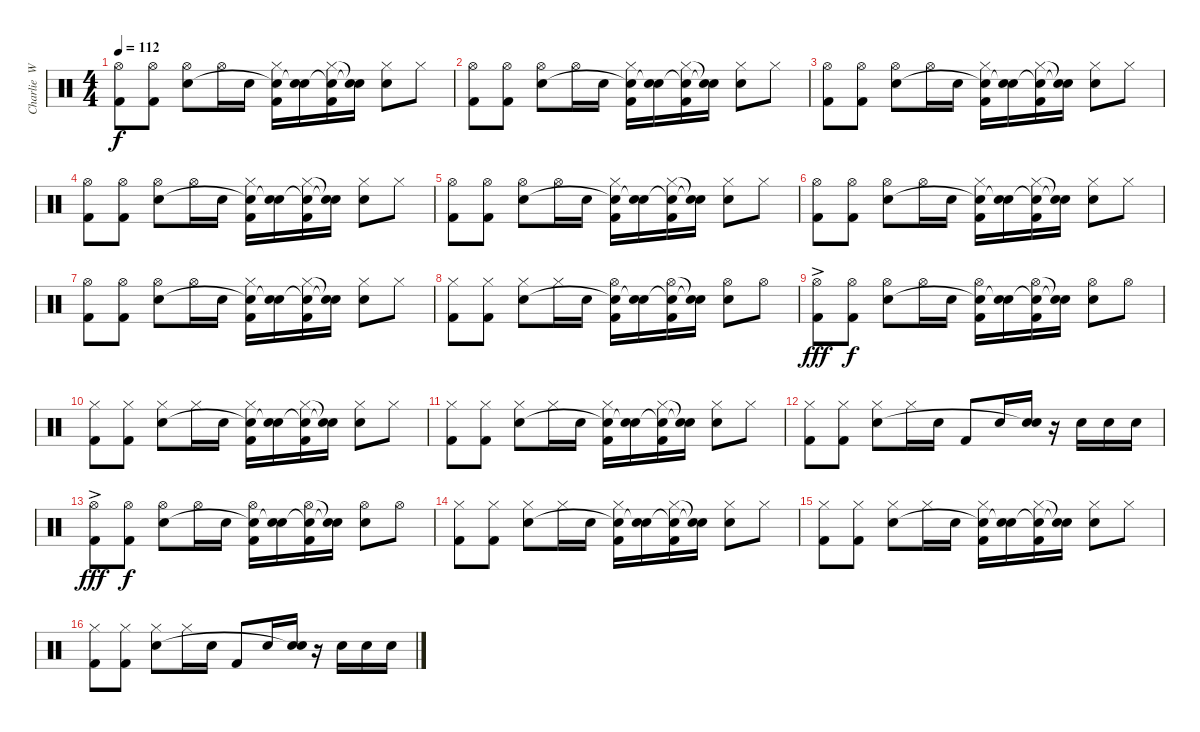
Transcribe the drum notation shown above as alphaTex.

\track ("Charlie  Watts" "Charlie  W") {instrument percussion}
\staff {score}
\articulation defaults
\ts (4 4)
\tempo 112
\clef neutral
\ks c
("Hi-Hat (open)" "Kick (hit) 2").8{dy f} ("Hi-Hat (open)" "Kick (hit) 2").8 ("Hi-Hat (open)" "Snare (hit) 2").8 "Hi-Hat (open)".16 "Snare (hit) 2".16 ("Hi-Hat (closed)" "Snare (hit)"{t} "Kick (hit) 2").16 ("Snare (hit) 2" "Snare (hit)"{t}).16 ("Hi-Hat (closed)" "Snare (hit)"{t} "Kick (hit) 2").16 ("Snare (hit)"{t} "Snare (hit)"{t}).16 ("Hi-Hat (closed)" "Snare (hit) 2").8 "Hi-Hat (closed)".8 |
("Hi-Hat (open)" "Kick (hit) 2").8 ("Hi-Hat (open)" "Kick (hit) 2").8 ("Hi-Hat (open)" "Snare (hit) 2").8 "Hi-Hat (open)".16 "Snare (hit) 2".16 ("Hi-Hat (closed)" "Snare (hit)"{t} "Kick (hit) 2").16 ("Snare (hit) 2" "Snare (hit)"{t}).16 ("Hi-Hat (closed)" "Snare (hit)"{t} "Kick (hit) 2").16 ("Snare (hit)"{t} "Snare (hit)"{t}).16 ("Hi-Hat (closed)" "Snare (hit) 2").8 "Hi-Hat (closed)".8 |
("Hi-Hat (open)" "Kick (hit) 2").8 ("Hi-Hat (open)" "Kick (hit) 2").8 ("Hi-Hat (open)" "Snare (hit) 2").8 "Hi-Hat (open)".16 "Snare (hit) 2".16 ("Hi-Hat (closed)" "Snare (hit)"{t} "Kick (hit) 2").16 ("Snare (hit) 2" "Snare (hit)"{t}).16 ("Hi-Hat (closed)" "Snare (hit)"{t} "Kick (hit) 2").16 ("Snare (hit)"{t} "Snare (hit)"{t}).16 ("Hi-Hat (closed)" "Snare (hit) 2").8 "Hi-Hat (closed)".8 |
("Hi-Hat (open)" "Kick (hit) 2").8 ("Hi-Hat (open)" "Kick (hit) 2").8 ("Hi-Hat (open)" "Snare (hit) 2").8 "Hi-Hat (open)".16 "Snare (hit) 2".16 ("Hi-Hat (closed)" "Snare (hit)"{t} "Kick (hit) 2").16 ("Snare (hit) 2" "Snare (hit)"{t}).16 ("Hi-Hat (closed)" "Snare (hit)"{t} "Kick (hit) 2").16 ("Snare (hit)"{t} "Snare (hit)"{t}).16 ("Hi-Hat (closed)" "Snare (hit) 2").8 "Hi-Hat (closed)".8 |
("Hi-Hat (open)" "Kick (hit) 2").8 ("Hi-Hat (open)" "Kick (hit) 2").8 ("Hi-Hat (open)" "Snare (hit) 2").8 "Hi-Hat (open)".16 "Snare (hit) 2".16 ("Hi-Hat (closed)" "Snare (hit)"{t} "Kick (hit) 2").16 ("Snare (hit) 2" "Snare (hit)"{t}).16 ("Hi-Hat (closed)" "Snare (hit)"{t} "Kick (hit) 2").16 ("Snare (hit)"{t} "Snare (hit)"{t}).16 ("Hi-Hat (closed)" "Snare (hit) 2").8 "Hi-Hat (closed)".8 |
("Hi-Hat (open)" "Kick (hit) 2").8 ("Hi-Hat (open)" "Kick (hit) 2").8 ("Hi-Hat (open)" "Snare (hit) 2").8 "Hi-Hat (open)".16 "Snare (hit) 2".16 ("Hi-Hat (closed)" "Snare (hit)"{t} "Kick (hit) 2").16 ("Snare (hit) 2" "Snare (hit)"{t}).16 ("Hi-Hat (closed)" "Snare (hit)"{t} "Kick (hit) 2").16 ("Snare (hit)"{t} "Snare (hit)"{t}).16 ("Hi-Hat (closed)" "Snare (hit) 2").8 "Hi-Hat (closed)".8 |
("Hi-Hat (open)" "Kick (hit) 2").8 ("Hi-Hat (open)" "Kick (hit) 2").8 ("Hi-Hat (open)" "Snare (hit) 2").8 "Hi-Hat (open)".16 "Snare (hit) 2".16 ("Hi-Hat (closed)" "Snare (hit)"{t} "Kick (hit) 2").16 ("Snare (hit) 2" "Snare (hit)"{t}).16 ("Hi-Hat (closed)" "Snare (hit)"{t} "Kick (hit) 2").16 ("Snare (hit)"{t} "Snare (hit)"{t}).16 ("Hi-Hat (closed)" "Snare (hit) 2").8 "Hi-Hat (closed)".8 |
("Hi-Hat (closed)" "Kick (hit) 2").8 ("Hi-Hat (closed)" "Kick (hit) 2").8 ("Hi-Hat (closed)" "Snare (hit) 2").8 "Hi-Hat (closed)".16 "Snare (hit) 2".16 ("Hi-Hat (open)" "Snare (hit)"{t} "Kick (hit) 2").16 ("Snare (hit) 2" "Snare (hit)"{t}).16 ("Hi-Hat (open)" "Snare (hit)"{t} "Kick (hit) 2").16 ("Snare (hit)"{t} "Snare (hit)"{t}).16 ("Hi-Hat (open)" "Snare (hit) 2").8 "Hi-Hat (open)".8 |
("Hi-Hat (open)"{ac} "Kick (hit) 2"{ac}).8{dy fff} ("Hi-Hat (open)" "Kick (hit) 2").8{dy f} ("Hi-Hat (open)" "Snare (hit) 2").8 "Hi-Hat (open)".16 "Snare (hit) 2".16 ("Hi-Hat (open)" "Snare (hit)"{t} "Kick (hit) 2").16 ("Snare (hit) 2" "Snare (hit)"{t}).16 ("Hi-Hat (open)" "Snare (hit)"{t} "Kick (hit) 2").16 ("Snare (hit)"{t} "Snare (hit)"{t}).16 ("Hi-Hat (open)" "Snare (hit) 2").8 "Hi-Hat (open)".8 |
("Hi-Hat (closed)" "Kick (hit) 2").8 ("Hi-Hat (closed)" "Kick (hit) 2").8 ("Hi-Hat (closed)" "Snare (hit) 2").8 "Hi-Hat (closed)".16 "Snare (hit) 2".16 ("Hi-Hat (closed)" "Snare (hit)"{t} "Kick (hit) 2").16 ("Snare (hit) 2" "Snare (hit)"{t}).16 ("Hi-Hat (closed)" "Snare (hit)"{t} "Kick (hit) 2").16 ("Snare (hit)"{t} "Snare (hit)"{t}).16 ("Hi-Hat (closed)" "Snare (hit) 2").8 "Hi-Hat (closed)".8 |
("Hi-Hat (closed)" "Kick (hit) 2").8 ("Hi-Hat (closed)" "Kick (hit) 2").8 ("Hi-Hat (closed)" "Snare (hit) 2").8 "Hi-Hat (closed)".16 "Snare (hit) 2".16 ("Hi-Hat (closed)" "Snare (hit)"{t} "Kick (hit) 2").16 ("Snare (hit) 2" "Snare (hit)"{t}).16 ("Hi-Hat (closed)" "Snare (hit)"{t} "Kick (hit) 2").16 ("Snare (hit)"{t} "Snare (hit)"{t}).16 ("Hi-Hat (closed)" "Snare (hit) 2").8 "Hi-Hat (closed)".8 |
("Hi-Hat (closed)" "Kick (hit) 2").8 ("Hi-Hat (closed)" "Kick (hit) 2").8 ("Hi-Hat (closed)" "Snare (hit) 2").8 "Hi-Hat (closed)".16 "Snare (hit) 2".16 "Kick (hit) 2".8 "Snare (hit) 2".16 ("Snare (hit) 2" "Snare (hit)"{t}).16 r.16 "Snare (hit) 2".16 "Snare (hit) 2".16 "Snare (hit) 2".16 |
("Hi-Hat (open)"{ac} "Kick (hit) 2"{ac}).8{dy fff} ("Hi-Hat (open)" "Kick (hit) 2").8{dy f} ("Hi-Hat (open)" "Snare (hit) 2").8 "Hi-Hat (open)".16 "Snare (hit) 2".16 ("Hi-Hat (open)" "Snare (hit)"{t} "Kick (hit) 2").16 ("Snare (hit) 2" "Snare (hit)"{t}).16 ("Hi-Hat (open)" "Snare (hit)"{t} "Kick (hit) 2").16 ("Snare (hit)"{t} "Snare (hit)"{t}).16 ("Hi-Hat (open)" "Snare (hit) 2").8 "Hi-Hat (open)".8 |
("Hi-Hat (closed)" "Kick (hit) 2").8 ("Hi-Hat (closed)" "Kick (hit) 2").8 ("Hi-Hat (closed)" "Snare (hit) 2").8 "Hi-Hat (closed)".16 "Snare (hit) 2".16 ("Hi-Hat (closed)" "Snare (hit)"{t} "Kick (hit) 2").16 ("Snare (hit) 2" "Snare (hit)"{t}).16 ("Hi-Hat (closed)" "Snare (hit)"{t} "Kick (hit) 2").16 ("Snare (hit)"{t} "Snare (hit)"{t}).16 ("Hi-Hat (closed)" "Snare (hit) 2").8 "Hi-Hat (closed)".8 |
("Hi-Hat (closed)" "Kick (hit) 2").8 ("Hi-Hat (closed)" "Kick (hit) 2").8 ("Hi-Hat (closed)" "Snare (hit) 2").8 "Hi-Hat (closed)".16 "Snare (hit) 2".16 ("Hi-Hat (closed)" "Snare (hit)"{t} "Kick (hit) 2").16 ("Snare (hit) 2" "Snare (hit)"{t}).16 ("Hi-Hat (closed)" "Snare (hit)"{t} "Kick (hit) 2").16 ("Snare (hit)"{t} "Snare (hit)"{t}).16 ("Hi-Hat (closed)" "Snare (hit) 2").8 "Hi-Hat (closed)".8 |
("Hi-Hat (closed)" "Kick (hit) 2").8 ("Hi-Hat (closed)" "Kick (hit) 2").8 ("Hi-Hat (closed)" "Snare (hit) 2").8 "Hi-Hat (closed)".16 "Snare (hit) 2".16 "Kick (hit) 2".8 "Snare (hit) 2".16 ("Snare (hit) 2" "Snare (hit)"{t}).16 r.16 "Snare (hit) 2".16 "Snare (hit) 2".16 "Snare (hit) 2".16
